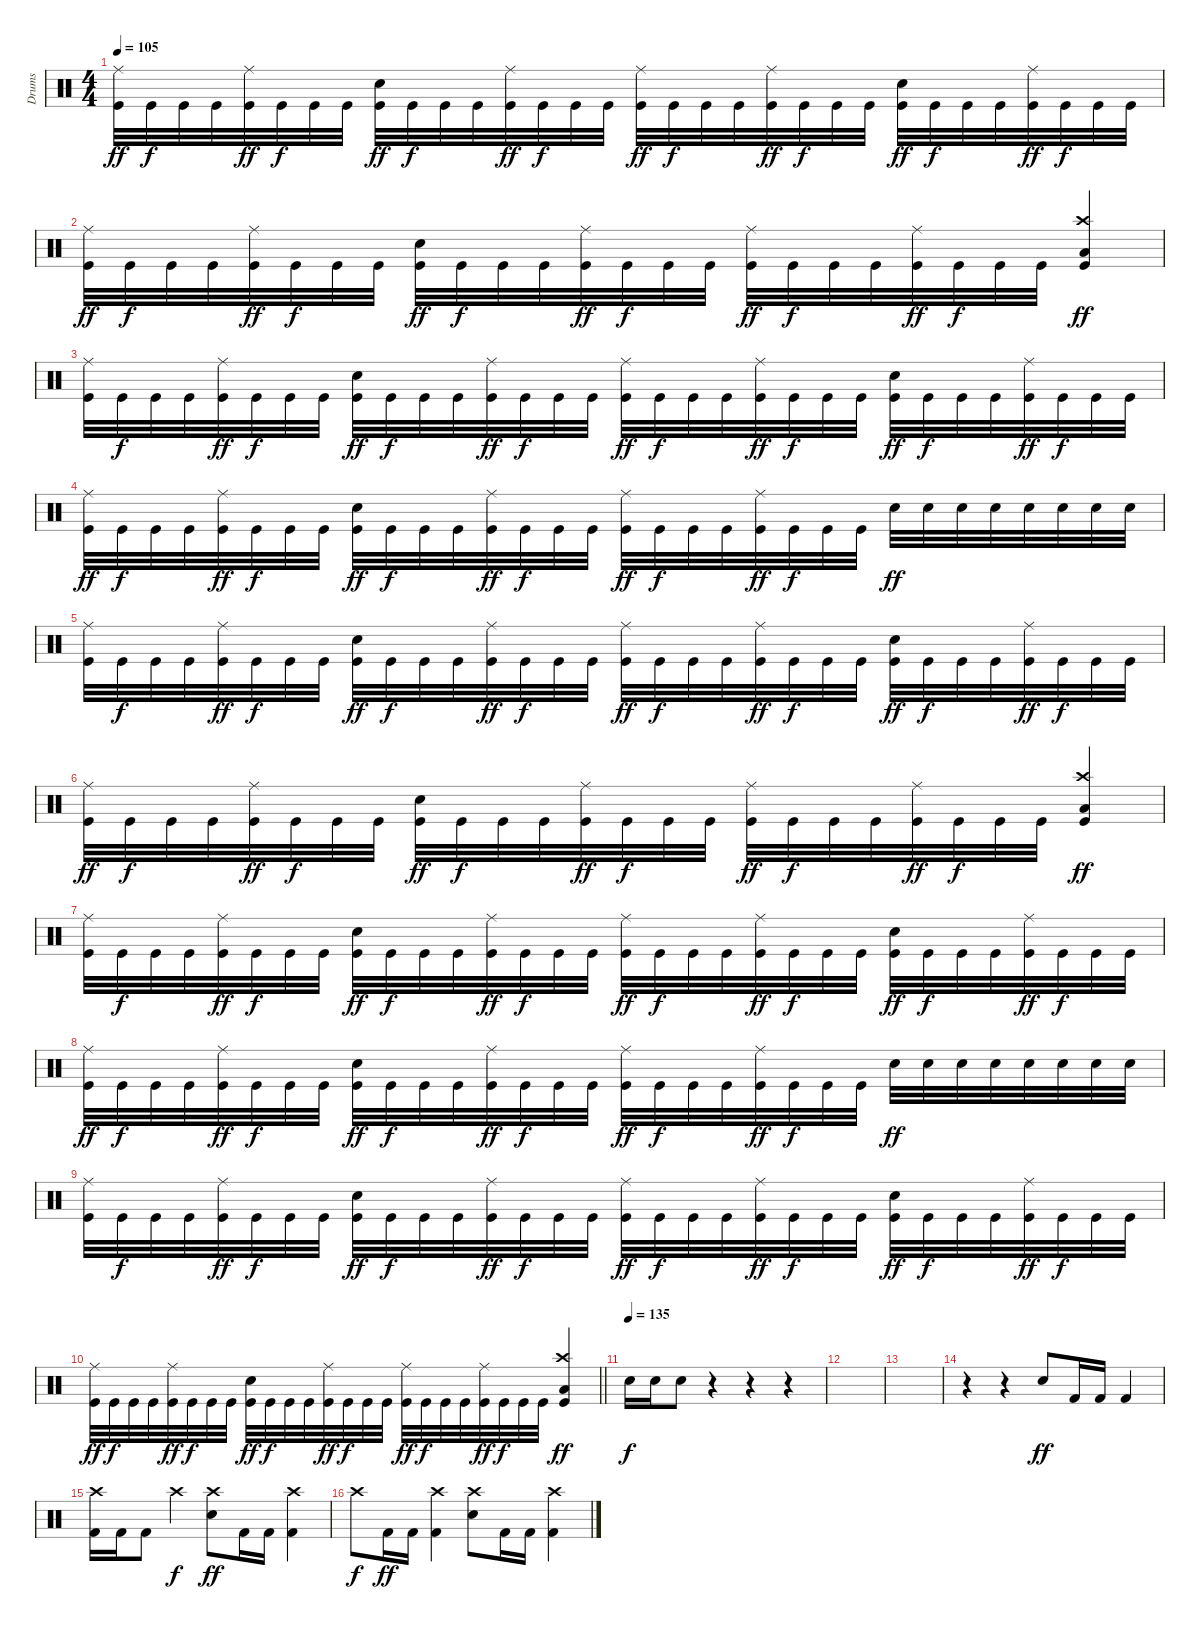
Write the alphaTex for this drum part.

\track ("Drums" "Drums") {instrument percussion}
\staff {score}
\articulation defaults
\ts (4 4)
\tempo 105
\clef neutral
\ks c
("Ride (middle)" "Kick (hit)").32{dy ff} "Kick (hit)".32{dy f} "Kick (hit)".32 "Kick (hit)".32 ("Ride (middle)" "Kick (hit)").32{dy ff} "Kick (hit)".32{dy f} "Kick (hit)".32 "Kick (hit)".32 ("Snare (hit) 2" "Kick (hit)").32{dy ff} "Kick (hit)".32{dy f} "Kick (hit)".32 "Kick (hit)".32 ("Ride (middle)" "Kick (hit)").32{dy ff} "Kick (hit)".32{dy f} "Kick (hit)".32 "Kick (hit)".32 ("Ride (middle)" "Kick (hit)").32{dy ff} "Kick (hit)".32{dy f} "Kick (hit)".32 "Kick (hit)".32 ("Ride (middle)" "Kick (hit)").32{dy ff} "Kick (hit)".32{dy f} "Kick (hit)".32 "Kick (hit)".32 ("Snare (hit) 2" "Kick (hit)").32{dy ff} "Kick (hit)".32{dy f} "Kick (hit)".32 "Kick (hit)".32 ("Ride (middle)" "Kick (hit)").32{dy ff} "Kick (hit)".32{dy f} "Kick (hit)".32 "Kick (hit)".32 |
("Ride (middle)" "Kick (hit)").32{dy ff} "Kick (hit)".32{dy f} "Kick (hit)".32 "Kick (hit)".32 ("Ride (middle)" "Kick (hit)").32{dy ff} "Kick (hit)".32{dy f} "Kick (hit)".32 "Kick (hit)".32 ("Snare (hit) 2" "Kick (hit)").32{dy ff} "Kick (hit)".32{dy f} "Kick (hit)".32 "Kick (hit)".32 ("Ride (middle)" "Kick (hit)").32{dy ff} "Kick (hit)".32{dy f} "Kick (hit)".32 "Kick (hit)".32 ("Ride (middle)" "Kick (hit)").32{dy ff} "Kick (hit)".32{dy f} "Kick (hit)".32 "Kick (hit)".32 ("Ride (middle)" "Kick (hit)").32{dy ff} "Kick (hit)".32{dy f} "Kick (hit)".32 "Kick (hit)".32 ("Crash high (hit)" "Low Floor Tom (hit)" "Kick (hit)").4{dy ff} |
("Ride (middle)" "Kick (hit)").32 "Kick (hit)".32{dy f} "Kick (hit)".32 "Kick (hit)".32 ("Ride (middle)" "Kick (hit)").32{dy ff} "Kick (hit)".32{dy f} "Kick (hit)".32 "Kick (hit)".32 ("Snare (hit) 2" "Kick (hit)").32{dy ff} "Kick (hit)".32{dy f} "Kick (hit)".32 "Kick (hit)".32 ("Ride (middle)" "Kick (hit)").32{dy ff} "Kick (hit)".32{dy f} "Kick (hit)".32 "Kick (hit)".32 ("Ride (middle)" "Kick (hit)").32{dy ff} "Kick (hit)".32{dy f} "Kick (hit)".32 "Kick (hit)".32 ("Ride (middle)" "Kick (hit)").32{dy ff} "Kick (hit)".32{dy f} "Kick (hit)".32 "Kick (hit)".32 ("Snare (hit) 2" "Kick (hit)").32{dy ff} "Kick (hit)".32{dy f} "Kick (hit)".32 "Kick (hit)".32 ("Ride (middle)" "Kick (hit)").32{dy ff} "Kick (hit)".32{dy f} "Kick (hit)".32 "Kick (hit)".32 |
("Ride (middle)" "Kick (hit)").32{dy ff} "Kick (hit)".32{dy f} "Kick (hit)".32 "Kick (hit)".32 ("Ride (middle)" "Kick (hit)").32{dy ff} "Kick (hit)".32{dy f} "Kick (hit)".32 "Kick (hit)".32 ("Snare (hit) 2" "Kick (hit)").32{dy ff} "Kick (hit)".32{dy f} "Kick (hit)".32 "Kick (hit)".32 ("Ride (middle)" "Kick (hit)").32{dy ff} "Kick (hit)".32{dy f} "Kick (hit)".32 "Kick (hit)".32 ("Ride (middle)" "Kick (hit)").32{dy ff} "Kick (hit)".32{dy f} "Kick (hit)".32 "Kick (hit)".32 ("Ride (middle)" "Kick (hit)").32{dy ff} "Kick (hit)".32{dy f} "Kick (hit)".32 "Kick (hit)".32 "Snare (hit) 2".32{dy ff} "Snare (hit) 2".32 "Snare (hit) 2".32 "Snare (hit) 2".32 "Snare (hit) 2".32 "Snare (hit) 2".32 "Snare (hit) 2".32 "Snare (hit) 2".32 |
("Ride (middle)" "Kick (hit)").32 "Kick (hit)".32{dy f} "Kick (hit)".32 "Kick (hit)".32 ("Ride (middle)" "Kick (hit)").32{dy ff} "Kick (hit)".32{dy f} "Kick (hit)".32 "Kick (hit)".32 ("Snare (hit) 2" "Kick (hit)").32{dy ff} "Kick (hit)".32{dy f} "Kick (hit)".32 "Kick (hit)".32 ("Ride (middle)" "Kick (hit)").32{dy ff} "Kick (hit)".32{dy f} "Kick (hit)".32 "Kick (hit)".32 ("Ride (middle)" "Kick (hit)").32{dy ff} "Kick (hit)".32{dy f} "Kick (hit)".32 "Kick (hit)".32 ("Ride (middle)" "Kick (hit)").32{dy ff} "Kick (hit)".32{dy f} "Kick (hit)".32 "Kick (hit)".32 ("Snare (hit) 2" "Kick (hit)").32{dy ff} "Kick (hit)".32{dy f} "Kick (hit)".32 "Kick (hit)".32 ("Ride (middle)" "Kick (hit)").32{dy ff} "Kick (hit)".32{dy f} "Kick (hit)".32 "Kick (hit)".32 |
("Ride (middle)" "Kick (hit)").32{dy ff} "Kick (hit)".32{dy f} "Kick (hit)".32 "Kick (hit)".32 ("Ride (middle)" "Kick (hit)").32{dy ff} "Kick (hit)".32{dy f} "Kick (hit)".32 "Kick (hit)".32 ("Snare (hit) 2" "Kick (hit)").32{dy ff} "Kick (hit)".32{dy f} "Kick (hit)".32 "Kick (hit)".32 ("Ride (middle)" "Kick (hit)").32{dy ff} "Kick (hit)".32{dy f} "Kick (hit)".32 "Kick (hit)".32 ("Ride (middle)" "Kick (hit)").32{dy ff} "Kick (hit)".32{dy f} "Kick (hit)".32 "Kick (hit)".32 ("Ride (middle)" "Kick (hit)").32{dy ff} "Kick (hit)".32{dy f} "Kick (hit)".32 "Kick (hit)".32 ("Crash high (hit)" "Low Floor Tom (hit)" "Kick (hit)").4{dy ff} |
("Ride (middle)" "Kick (hit)").32 "Kick (hit)".32{dy f} "Kick (hit)".32 "Kick (hit)".32 ("Ride (middle)" "Kick (hit)").32{dy ff} "Kick (hit)".32{dy f} "Kick (hit)".32 "Kick (hit)".32 ("Snare (hit) 2" "Kick (hit)").32{dy ff} "Kick (hit)".32{dy f} "Kick (hit)".32 "Kick (hit)".32 ("Ride (middle)" "Kick (hit)").32{dy ff} "Kick (hit)".32{dy f} "Kick (hit)".32 "Kick (hit)".32 ("Ride (middle)" "Kick (hit)").32{dy ff} "Kick (hit)".32{dy f} "Kick (hit)".32 "Kick (hit)".32 ("Ride (middle)" "Kick (hit)").32{dy ff} "Kick (hit)".32{dy f} "Kick (hit)".32 "Kick (hit)".32 ("Snare (hit) 2" "Kick (hit)").32{dy ff} "Kick (hit)".32{dy f} "Kick (hit)".32 "Kick (hit)".32 ("Ride (middle)" "Kick (hit)").32{dy ff} "Kick (hit)".32{dy f} "Kick (hit)".32 "Kick (hit)".32 |
("Ride (middle)" "Kick (hit)").32{dy ff} "Kick (hit)".32{dy f} "Kick (hit)".32 "Kick (hit)".32 ("Ride (middle)" "Kick (hit)").32{dy ff} "Kick (hit)".32{dy f} "Kick (hit)".32 "Kick (hit)".32 ("Snare (hit) 2" "Kick (hit)").32{dy ff} "Kick (hit)".32{dy f} "Kick (hit)".32 "Kick (hit)".32 ("Ride (middle)" "Kick (hit)").32{dy ff} "Kick (hit)".32{dy f} "Kick (hit)".32 "Kick (hit)".32 ("Ride (middle)" "Kick (hit)").32{dy ff} "Kick (hit)".32{dy f} "Kick (hit)".32 "Kick (hit)".32 ("Ride (middle)" "Kick (hit)").32{dy ff} "Kick (hit)".32{dy f} "Kick (hit)".32 "Kick (hit)".32 "Snare (hit) 2".32{dy ff} "Snare (hit) 2".32 "Snare (hit) 2".32 "Snare (hit) 2".32 "Snare (hit) 2".32 "Snare (hit) 2".32 "Snare (hit) 2".32 "Snare (hit) 2".32 |
("Ride (middle)" "Kick (hit)").32 "Kick (hit)".32{dy f} "Kick (hit)".32 "Kick (hit)".32 ("Ride (middle)" "Kick (hit)").32{dy ff} "Kick (hit)".32{dy f} "Kick (hit)".32 "Kick (hit)".32 ("Snare (hit) 2" "Kick (hit)").32{dy ff} "Kick (hit)".32{dy f} "Kick (hit)".32 "Kick (hit)".32 ("Ride (middle)" "Kick (hit)").32{dy ff} "Kick (hit)".32{dy f} "Kick (hit)".32 "Kick (hit)".32 ("Ride (middle)" "Kick (hit)").32{dy ff} "Kick (hit)".32{dy f} "Kick (hit)".32 "Kick (hit)".32 ("Ride (middle)" "Kick (hit)").32{dy ff} "Kick (hit)".32{dy f} "Kick (hit)".32 "Kick (hit)".32 ("Snare (hit) 2" "Kick (hit)").32{dy ff} "Kick (hit)".32{dy f} "Kick (hit)".32 "Kick (hit)".32 ("Ride (middle)" "Kick (hit)").32{dy ff} "Kick (hit)".32{dy f} "Kick (hit)".32 "Kick (hit)".32 |
\barLineRight lightlight
("Ride (middle)" "Kick (hit)").32{dy ff} "Kick (hit)".32{dy f} "Kick (hit)".32 "Kick (hit)".32 ("Ride (middle)" "Kick (hit)").32{dy ff} "Kick (hit)".32{dy f} "Kick (hit)".32 "Kick (hit)".32 ("Snare (hit) 2" "Kick (hit)").32{dy ff} "Kick (hit)".32{dy f} "Kick (hit)".32 "Kick (hit)".32 ("Ride (middle)" "Kick (hit)").32{dy ff} "Kick (hit)".32{dy f} "Kick (hit)".32 "Kick (hit)".32 ("Ride (middle)" "Kick (hit)").32{dy ff} "Kick (hit)".32{dy f} "Kick (hit)".32 "Kick (hit)".32 ("Ride (middle)" "Kick (hit)").32{dy ff} "Kick (hit)".32{dy f} "Kick (hit)".32 "Kick (hit)".32 ("Crash high (hit)" "Low Floor Tom (hit)" "Kick (hit)").4{dy ff} |
\section ("" "")
\tempo (135)
"Snare (hit) 2".16{dy f} "Snare (hit) 2".16 "Snare (hit) 2".8 r.4 r.4 r.4 |
|
|
r.4 r.4 "Snare (hit) 2".8{dy ff} "Kick (hit) 2".16 "Kick (hit) 2".16 "Kick (hit) 2".4 |
("Crash high (hit)" "Kick (hit) 2").16 "Kick (hit) 2".16 "Kick (hit) 2".8 "Crash high (hit)".4{dy f} ("Crash high (hit)" "Snare (hit) 2").8{dy ff} "Kick (hit) 2".16 "Kick (hit) 2".16 ("Crash high (hit)" "Kick (hit) 2").4 |
"Crash high (hit)".8{dy f} "Kick (hit) 2".16{dy ff} "Kick (hit) 2".16 ("Crash high (hit)" "Kick (hit) 2").4 ("Crash high (hit)" "Snare (hit) 2").8 "Kick (hit) 2".16 "Kick (hit) 2".16 ("Crash high (hit)" "Kick (hit) 2").4
